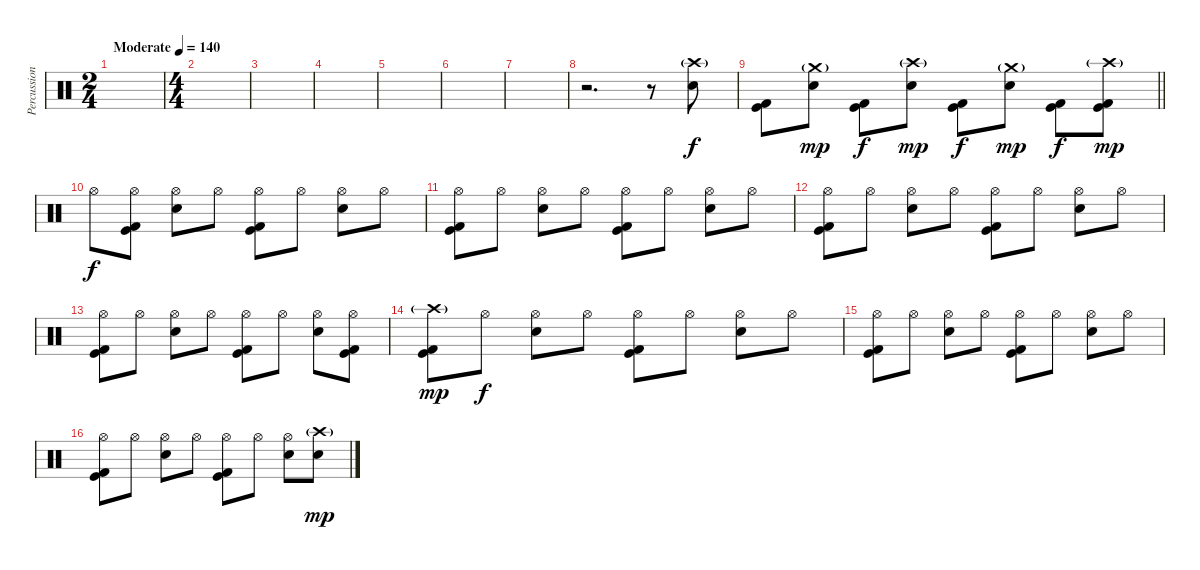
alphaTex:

\track ("Percussion" "Percussion") {instrument percussion}
\staff {score}
\articulation defaults
\ts (2 4)
\tempo (140 "Moderate")
\clef neutral
\ks c
|
\ts (4 4)
|
|
|
|
|
|
r.2{d} r.8 ("Crash high (hit)"{g} "Electric Snare (hit)").8 |
\barLineRight lightlight
("Kick (hit)" "Kick (hit) 2").8{dy f} ("Crash medium (hit)"{g} "Electric Snare (hit)").8{dy mp} ("Kick (hit)" "Kick (hit) 2").8{dy f} ("Crash high (hit)"{g} "Electric Snare (hit)").8{dy mp} ("Kick (hit)" "Kick (hit) 2").8{dy f} ("Crash medium (hit)"{g} "Electric Snare (hit)").8{dy mp} ("Kick (hit)" "Kick (hit) 2").8{dy f} ("Crash high (hit)"{g} "Kick (hit)" "Kick (hit) 2").8{dy mp} |
\section ("" "")
"Hi-Hat (open)".8{dy f} ("Hi-Hat (open)" "Kick (hit)" "Kick (hit) 2").8 ("Hi-Hat (open)" "Electric Snare (hit)").8 "Hi-Hat (open)".8 ("Hi-Hat (open)" "Kick (hit)" "Kick (hit) 2").8 "Hi-Hat (open)".8 ("Hi-Hat (open)" "Electric Snare (hit)").8 "Hi-Hat (open)".8 |
("Hi-Hat (open)" "Kick (hit)" "Kick (hit) 2").8 "Hi-Hat (open)".8 ("Hi-Hat (open)" "Electric Snare (hit)").8 "Hi-Hat (open)".8 ("Hi-Hat (open)" "Kick (hit)" "Kick (hit) 2").8 "Hi-Hat (open)".8 ("Hi-Hat (open)" "Electric Snare (hit)").8 "Hi-Hat (open)".8 |
("Hi-Hat (open)" "Kick (hit)" "Kick (hit) 2").8 "Hi-Hat (open)".8 ("Hi-Hat (open)" "Electric Snare (hit)").8 "Hi-Hat (open)".8 ("Hi-Hat (open)" "Kick (hit)" "Kick (hit) 2").8 "Hi-Hat (open)".8 ("Hi-Hat (open)" "Electric Snare (hit)").8 "Hi-Hat (open)".8 |
("Hi-Hat (open)" "Kick (hit)" "Kick (hit) 2").8 "Hi-Hat (open)".8 ("Hi-Hat (open)" "Electric Snare (hit)").8 "Hi-Hat (open)".8 ("Hi-Hat (open)" "Kick (hit)" "Kick (hit) 2").8 "Hi-Hat (open)".8 ("Hi-Hat (open)" "Electric Snare (hit)").8 ("Hi-Hat (open)" "Kick (hit)" "Kick (hit) 2").8 |
("Crash high (hit)"{g} "Kick (hit)" "Kick (hit) 2").8{dy mp} "Hi-Hat (open)".8{dy f} ("Hi-Hat (open)" "Electric Snare (hit)").8 "Hi-Hat (open)".8 ("Hi-Hat (open)" "Kick (hit)" "Kick (hit) 2").8 "Hi-Hat (open)".8 ("Hi-Hat (open)" "Electric Snare (hit)").8 "Hi-Hat (open)".8 |
("Hi-Hat (open)" "Kick (hit)" "Kick (hit) 2").8 "Hi-Hat (open)".8 ("Hi-Hat (open)" "Electric Snare (hit)").8 "Hi-Hat (open)".8 ("Hi-Hat (open)" "Kick (hit)" "Kick (hit) 2").8 "Hi-Hat (open)".8 ("Hi-Hat (open)" "Electric Snare (hit)").8 "Hi-Hat (open)".8 |
("Hi-Hat (open)" "Kick (hit)" "Kick (hit) 2").8 "Hi-Hat (open)".8 ("Hi-Hat (open)" "Electric Snare (hit)").8 "Hi-Hat (open)".8 ("Hi-Hat (open)" "Kick (hit)" "Kick (hit) 2").8 "Hi-Hat (open)".8 ("Hi-Hat (open)" "Electric Snare (hit)").8 ("Crash high (hit)"{g} "Electric Snare (hit)").8{dy mp}
